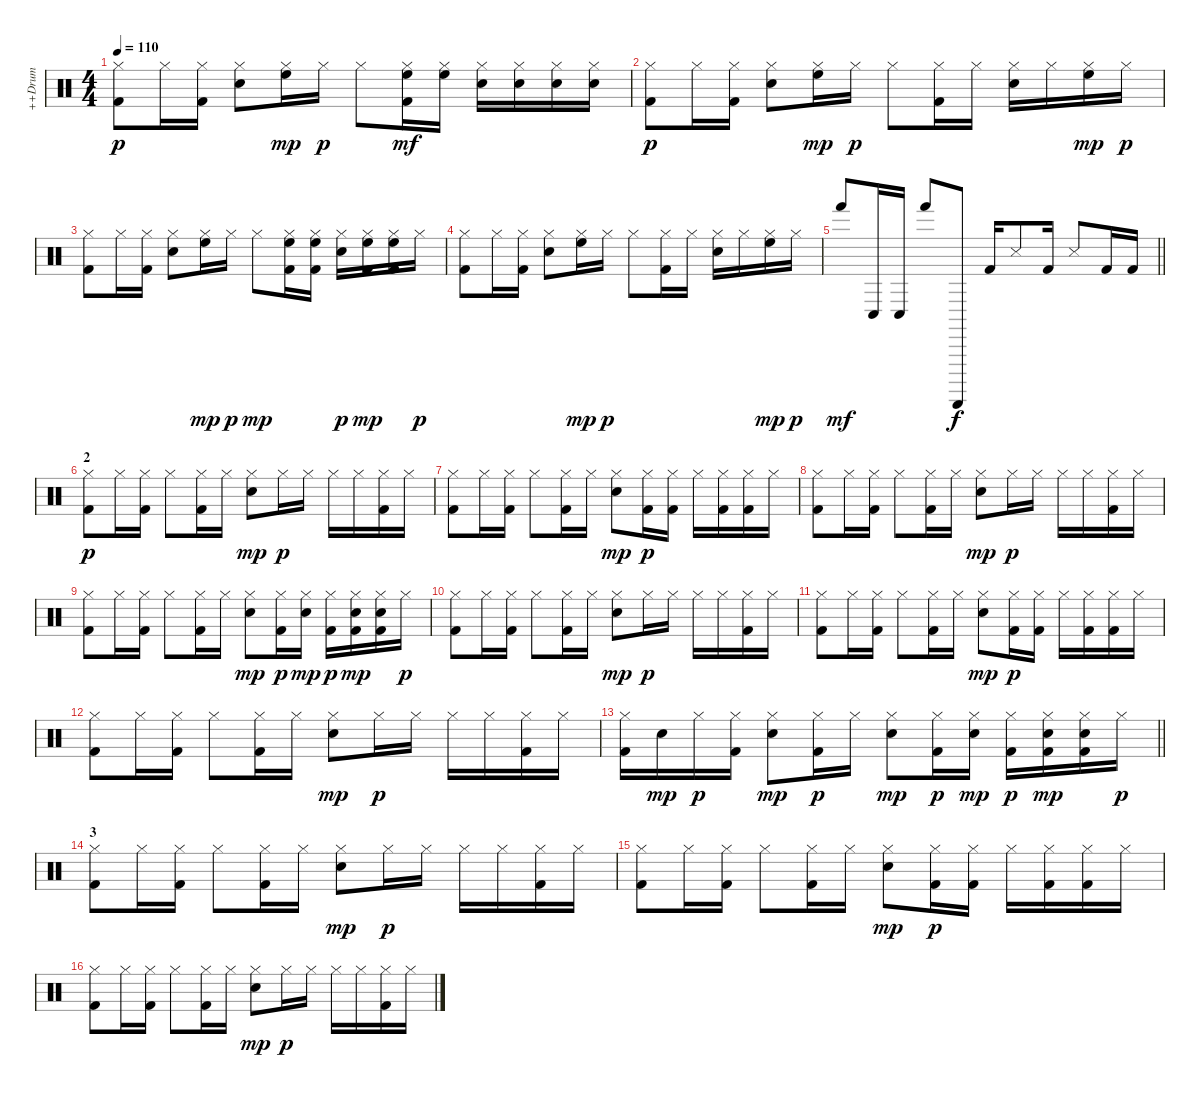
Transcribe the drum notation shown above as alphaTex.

\track ("++Drum" "++Drum") {instrument percussion}
\staff {score}
\articulation defaults
\ts (4 4)
\tempo 110
\clef neutral
\ks c
("Hi-Hat (closed)" "Kick (hit) 2").8{dy p} "Hi-Hat (closed)".16 ("Hi-Hat (closed)" "Kick (hit) 2").16 ("Hi-Hat (closed)" "Electric Snare (hit)").8 ("Hi-Hat (closed)" "High Floor Tom (hit)").16{dy mp} "Hi-Hat (closed)".16{dy p} "Hi-Hat (closed)".8 ("Hi-Hat (closed)" "High Floor Tom (hit)" "Kick (hit) 2").16{dy mf} ("Hi-Hat (closed)" "High Floor Tom (hit)").16 ("Hi-Hat (closed)" "Electric Snare (hit)").16 ("Hi-Hat (closed)" "Electric Snare (hit)").16 ("Hi-Hat (closed)" "Electric Snare (hit)").16 ("Hi-Hat (closed)" "Electric Snare (hit)").16 |
("Hi-Hat (closed)" "Kick (hit) 2").8{dy p} "Hi-Hat (closed)".16 ("Hi-Hat (closed)" "Kick (hit) 2").16 ("Hi-Hat (closed)" "Electric Snare (hit)").8 ("Hi-Hat (closed)" "High Floor Tom (hit)").16{dy mp} "Hi-Hat (closed)".16{dy p} "Hi-Hat (closed)".8 ("Hi-Hat (closed)" "Kick (hit) 2").16 "Hi-Hat (closed)".16 ("Hi-Hat (closed)" "Electric Snare (hit)").16 "Hi-Hat (closed)".16 ("Hi-Hat (closed)" "High Floor Tom (hit)").16{dy mp} "Hi-Hat (closed)".16{dy p} |
("Hi-Hat (closed)" "Kick (hit) 2").8 "Hi-Hat (closed)".16 ("Hi-Hat (closed)" "Kick (hit) 2").16 ("Hi-Hat (closed)" "Electric Snare (hit)").8 ("Hi-Hat (closed)" "High Floor Tom (hit)").16{dy mp} "Hi-Hat (closed)".16{dy p} "Hi-Hat (closed)".8{dy mp} ("Hi-Hat (closed)" "High Floor Tom (hit)" "Kick (hit) 2").16 ("Hi-Hat (closed)" "High Floor Tom (hit)" "Kick (hit) 2").16 ("Hi-Hat (closed)" "Electric Snare (hit)").16{dy p} ("Hi-Hat (closed)" "High Floor Tom (hit)" "Kick (hit) 2").16{dy mp} ("Hi-Hat (closed)" "High Floor Tom (hit)" "Kick (hit) 2").16 "Hi-Hat (closed)".16{dy p} |
("Hi-Hat (closed)" "Kick (hit) 2").8 "Hi-Hat (closed)".16 ("Hi-Hat (closed)" "Kick (hit) 2").16 ("Hi-Hat (closed)" "Electric Snare (hit)").8 ("Hi-Hat (closed)" "High Floor Tom (hit)").16{dy mp} "Hi-Hat (closed)".16{dy p} "Hi-Hat (closed)".8 ("Hi-Hat (closed)" "Kick (hit) 2").16 "Hi-Hat (closed)".16 ("Hi-Hat (closed)" "Electric Snare (hit)").16 "Hi-Hat (closed)".16 ("Hi-Hat (closed)" "High Floor Tom (hit)").16{dy mp} "Hi-Hat (closed)".16{dy p} |
\barLineRight lightlight "Hand (hit)".8{dy mf} "Conga low (hit)".16 "Conga low (hit)".16 "Hand (hit)".8 "Guiro (scrap-return)".8{dy f} "Kick (hit) 2".16 "Snare (side stick) 3".8 "Kick (hit) 2".16 "Snare (side stick) 3".8 "Kick (hit) 2".16 "Kick (hit) 2".16
|
\section ("" "2")
("Hi-Hat (closed)" "Kick (hit) 2").8{dy p} "Hi-Hat (closed)".16 ("Hi-Hat (closed)" "Kick (hit) 2").16 "Hi-Hat (closed)".8 ("Hi-Hat (closed)" "Kick (hit) 2").16 "Hi-Hat (closed)".16 ("Hi-Hat (closed)" "Electric Snare (hit)").8{dy mp} "Hi-Hat (closed)".16{dy p} "Hi-Hat (closed)".16 "Hi-Hat (closed)".16 "Hi-Hat (closed)".16 ("Hi-Hat (closed)" "Kick (hit) 2").16 "Hi-Hat (closed)".16 |
("Hi-Hat (closed)" "Kick (hit) 2").8 "Hi-Hat (closed)".16 ("Hi-Hat (closed)" "Kick (hit) 2").16 "Hi-Hat (closed)".8 ("Hi-Hat (closed)" "Kick (hit) 2").16 "Hi-Hat (closed)".16 ("Hi-Hat (closed)" "Electric Snare (hit)").8{dy mp} ("Hi-Hat (closed)" "Kick (hit) 2").16{dy p} ("Hi-Hat (closed)" "Kick (hit) 2").16 "Hi-Hat (closed)".16 ("Hi-Hat (closed)" "Kick (hit) 2").16 ("Hi-Hat (closed)" "Kick (hit) 2").16 "Hi-Hat (closed)".16 |
("Hi-Hat (closed)" "Kick (hit) 2").8 "Hi-Hat (closed)".16 ("Hi-Hat (closed)" "Kick (hit) 2").16 "Hi-Hat (closed)".8 ("Hi-Hat (closed)" "Kick (hit) 2").16 "Hi-Hat (closed)".16 ("Hi-Hat (closed)" "Electric Snare (hit)").8{dy mp} "Hi-Hat (closed)".16{dy p} "Hi-Hat (closed)".16 "Hi-Hat (closed)".16 "Hi-Hat (closed)".16 ("Hi-Hat (closed)" "Kick (hit) 2").16 "Hi-Hat (closed)".16 |
("Hi-Hat (closed)" "Kick (hit) 2").8 "Hi-Hat (closed)".16 ("Hi-Hat (closed)" "Kick (hit) 2").16 "Hi-Hat (closed)".8 ("Hi-Hat (closed)" "Kick (hit) 2").16 "Hi-Hat (closed)".16 ("Hi-Hat (closed)" "Electric Snare (hit)").8{dy mp} ("Hi-Hat (closed)" "Kick (hit) 2").16{dy p} ("Hi-Hat (closed)" "Electric Snare (hit)").16{dy mp} ("Hi-Hat (closed)" "Kick (hit) 2").16{dy p} ("Hi-Hat (closed)" "Electric Snare (hit)" "Kick (hit) 2").16{dy mp} ("Hi-Hat (closed)" "Electric Snare (hit)" "Kick (hit) 2").16 "Hi-Hat (closed)".16{dy p} |
("Hi-Hat (closed)" "Kick (hit) 2").8 "Hi-Hat (closed)".16 ("Hi-Hat (closed)" "Kick (hit) 2").16 "Hi-Hat (closed)".8 ("Hi-Hat (closed)" "Kick (hit) 2").16 "Hi-Hat (closed)".16 ("Hi-Hat (closed)" "Electric Snare (hit)").8{dy mp} "Hi-Hat (closed)".16{dy p} "Hi-Hat (closed)".16 "Hi-Hat (closed)".16 "Hi-Hat (closed)".16 ("Hi-Hat (closed)" "Kick (hit) 2").16 "Hi-Hat (closed)".16 |
("Hi-Hat (closed)" "Kick (hit) 2").8 "Hi-Hat (closed)".16 ("Hi-Hat (closed)" "Kick (hit) 2").16 "Hi-Hat (closed)".8 ("Hi-Hat (closed)" "Kick (hit) 2").16 "Hi-Hat (closed)".16 ("Hi-Hat (closed)" "Electric Snare (hit)").8{dy mp} ("Hi-Hat (closed)" "Kick (hit) 2").16{dy p} ("Hi-Hat (closed)" "Kick (hit) 2").16 "Hi-Hat (closed)".16 ("Hi-Hat (closed)" "Kick (hit) 2").16 ("Hi-Hat (closed)" "Kick (hit) 2").16 "Hi-Hat (closed)".16 |
("Hi-Hat (closed)" "Kick (hit) 2").8 "Hi-Hat (closed)".16 ("Hi-Hat (closed)" "Kick (hit) 2").16 "Hi-Hat (closed)".8 ("Hi-Hat (closed)" "Kick (hit) 2").16 "Hi-Hat (closed)".16 ("Hi-Hat (closed)" "Electric Snare (hit)").8{dy mp} "Hi-Hat (closed)".16{dy p} "Hi-Hat (closed)".16 "Hi-Hat (closed)".16 "Hi-Hat (closed)".16 ("Hi-Hat (closed)" "Kick (hit) 2").16 "Hi-Hat (closed)".16 |
\barLineRight lightlight
("Hi-Hat (closed)" "Kick (hit) 2").16 "Electric Snare (hit)".16{dy mp} "Hi-Hat (closed)".16{dy p} ("Hi-Hat (closed)" "Kick (hit) 2").16 ("Hi-Hat (closed)" "Electric Snare (hit)").8{dy mp} ("Hi-Hat (closed)" "Kick (hit) 2").16{dy p} "Hi-Hat (closed)".16 ("Hi-Hat (closed)" "Electric Snare (hit)").8{dy mp} ("Hi-Hat (closed)" "Kick (hit) 2").16{dy p} ("Hi-Hat (closed)" "Electric Snare (hit)").16{dy mp} ("Hi-Hat (closed)" "Kick (hit) 2").16{dy p} ("Hi-Hat (closed)" "Electric Snare (hit)" "Kick (hit) 2").16{dy mp} ("Hi-Hat (closed)" "Electric Snare (hit)" "Kick (hit) 2").16 "Hi-Hat (closed)".16{dy p} |
\section ("" "3")
("Hi-Hat (closed)" "Kick (hit) 2").8 "Hi-Hat (closed)".16 ("Hi-Hat (closed)" "Kick (hit) 2").16 "Hi-Hat (closed)".8 ("Hi-Hat (closed)" "Kick (hit) 2").16 "Hi-Hat (closed)".16 ("Hi-Hat (closed)" "Electric Snare (hit)").8{dy mp} "Hi-Hat (closed)".16{dy p} "Hi-Hat (closed)".16 "Hi-Hat (closed)".16 "Hi-Hat (closed)".16 ("Hi-Hat (closed)" "Kick (hit) 2").16 "Hi-Hat (closed)".16 |
("Hi-Hat (closed)" "Kick (hit) 2").8 "Hi-Hat (closed)".16 ("Hi-Hat (closed)" "Kick (hit) 2").16 "Hi-Hat (closed)".8 ("Hi-Hat (closed)" "Kick (hit) 2").16 "Hi-Hat (closed)".16 ("Hi-Hat (closed)" "Electric Snare (hit)").8{dy mp} ("Hi-Hat (closed)" "Kick (hit) 2").16{dy p} ("Hi-Hat (closed)" "Kick (hit) 2").16 "Hi-Hat (closed)".16 ("Hi-Hat (closed)" "Kick (hit) 2").16 ("Hi-Hat (closed)" "Kick (hit) 2").16 "Hi-Hat (closed)".16 |
("Hi-Hat (closed)" "Kick (hit) 2").8 "Hi-Hat (closed)".16 ("Hi-Hat (closed)" "Kick (hit) 2").16 "Hi-Hat (closed)".8 ("Hi-Hat (closed)" "Kick (hit) 2").16 "Hi-Hat (closed)".16 ("Hi-Hat (closed)" "Electric Snare (hit)").8{dy mp} "Hi-Hat (closed)".16{dy p} "Hi-Hat (closed)".16 "Hi-Hat (closed)".16 "Hi-Hat (closed)".16 ("Hi-Hat (closed)" "Kick (hit) 2").16 "Hi-Hat (closed)".16
